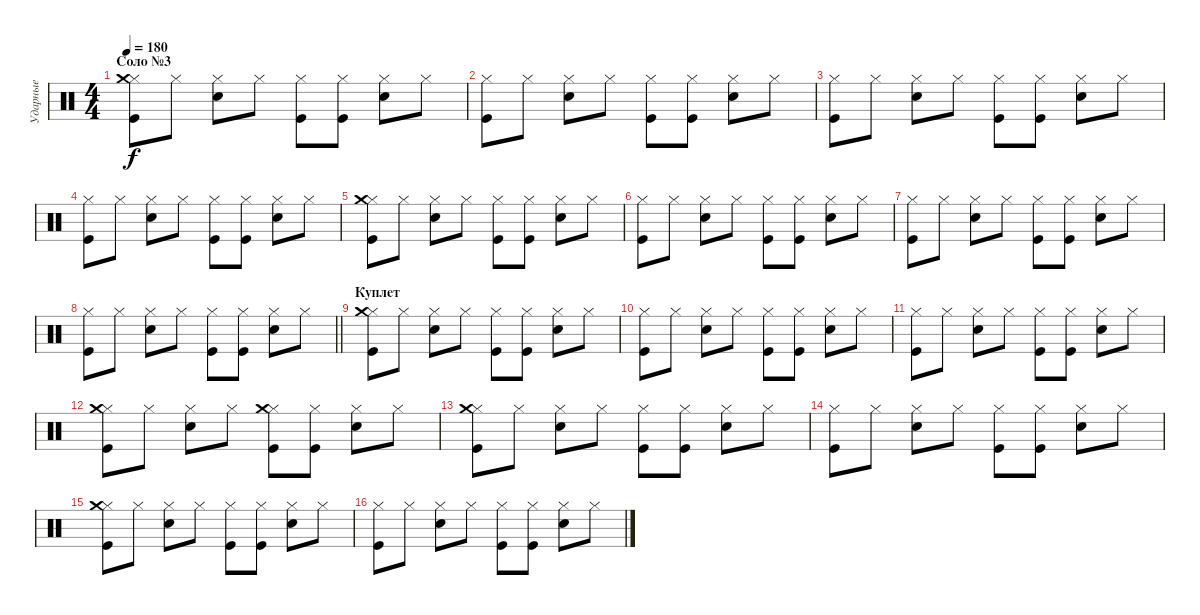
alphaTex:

\track ("Ударные" "Ударные") {instrument percussion}
\staff {score}
\articulation defaults
\ts (4 4)
\section ("" "Соло №3")
\tempo 180
\clef neutral
\ks c
("Hi-Hat (closed)" "Kick (hit)" "Crash medium (hit)").8{dy f} "Hi-Hat (closed)".8 ("Hi-Hat (closed)" "Electric Snare (hit)").8 "Hi-Hat (closed)".8 ("Hi-Hat (closed)" "Kick (hit)").8 ("Hi-Hat (closed)" "Kick (hit)").8 ("Hi-Hat (closed)" "Electric Snare (hit)").8 "Hi-Hat (closed)".8 |
("Hi-Hat (closed)" "Kick (hit)").8 "Hi-Hat (closed)".8 ("Hi-Hat (closed)" "Electric Snare (hit)").8 "Hi-Hat (closed)".8 ("Hi-Hat (closed)" "Kick (hit)").8 ("Hi-Hat (closed)" "Kick (hit)").8 ("Hi-Hat (closed)" "Electric Snare (hit)").8 "Hi-Hat (closed)".8 |
("Hi-Hat (closed)" "Kick (hit)").8 "Hi-Hat (closed)".8 ("Hi-Hat (closed)" "Electric Snare (hit)").8 "Hi-Hat (closed)".8 ("Hi-Hat (closed)" "Kick (hit)").8 ("Hi-Hat (closed)" "Kick (hit)").8 ("Hi-Hat (closed)" "Electric Snare (hit)").8 "Hi-Hat (closed)".8 |
("Hi-Hat (closed)" "Kick (hit)").8 "Hi-Hat (closed)".8 ("Hi-Hat (closed)" "Electric Snare (hit)").8 "Hi-Hat (closed)".8 ("Hi-Hat (closed)" "Kick (hit)").8 ("Hi-Hat (closed)" "Kick (hit)").8 ("Hi-Hat (closed)" "Electric Snare (hit)").8 "Hi-Hat (closed)".8 |
("Hi-Hat (closed)" "Kick (hit)" "Crash medium (hit)").8 "Hi-Hat (closed)".8 ("Hi-Hat (closed)" "Electric Snare (hit)").8 "Hi-Hat (closed)".8 ("Hi-Hat (closed)" "Kick (hit)").8 ("Hi-Hat (closed)" "Kick (hit)").8 ("Hi-Hat (closed)" "Electric Snare (hit)").8 "Hi-Hat (closed)".8 |
("Hi-Hat (closed)" "Kick (hit)").8 "Hi-Hat (closed)".8 ("Hi-Hat (closed)" "Electric Snare (hit)").8 "Hi-Hat (closed)".8 ("Hi-Hat (closed)" "Kick (hit)").8 ("Hi-Hat (closed)" "Kick (hit)").8 ("Hi-Hat (closed)" "Electric Snare (hit)").8 "Hi-Hat (closed)".8 |
("Hi-Hat (closed)" "Kick (hit)").8 "Hi-Hat (closed)".8 ("Hi-Hat (closed)" "Electric Snare (hit)").8 "Hi-Hat (closed)".8 ("Hi-Hat (closed)" "Kick (hit)").8 ("Hi-Hat (closed)" "Kick (hit)").8 ("Hi-Hat (closed)" "Electric Snare (hit)").8 "Hi-Hat (closed)".8 |
\barLineRight lightlight
("Hi-Hat (closed)" "Kick (hit)").8 "Hi-Hat (closed)".8 ("Hi-Hat (closed)" "Electric Snare (hit)").8 "Hi-Hat (closed)".8 ("Hi-Hat (closed)" "Kick (hit)").8 ("Hi-Hat (closed)" "Kick (hit)").8 ("Hi-Hat (closed)" "Electric Snare (hit)").8 "Hi-Hat (closed)".8 |
\section ("" "Куплет")
("Hi-Hat (closed)" "Kick (hit)" "Crash medium (hit)").8 "Hi-Hat (closed)".8 ("Hi-Hat (closed)" "Electric Snare (hit)").8 "Hi-Hat (closed)".8 ("Hi-Hat (closed)" "Kick (hit)").8 ("Hi-Hat (closed)" "Kick (hit)").8 ("Hi-Hat (closed)" "Electric Snare (hit)").8 "Hi-Hat (closed)".8 |
("Hi-Hat (closed)" "Kick (hit)").8 "Hi-Hat (closed)".8 ("Hi-Hat (closed)" "Electric Snare (hit)").8 "Hi-Hat (closed)".8 ("Hi-Hat (closed)" "Kick (hit)").8 ("Hi-Hat (closed)" "Kick (hit)").8 ("Hi-Hat (closed)" "Electric Snare (hit)").8 "Hi-Hat (closed)".8 |
("Hi-Hat (closed)" "Kick (hit)").8 "Hi-Hat (closed)".8 ("Hi-Hat (closed)" "Electric Snare (hit)").8 "Hi-Hat (closed)".8 ("Hi-Hat (closed)" "Kick (hit)").8 ("Hi-Hat (closed)" "Kick (hit)").8 ("Hi-Hat (closed)" "Electric Snare (hit)").8 "Hi-Hat (closed)".8 |
("Hi-Hat (closed)" "Kick (hit)" "Crash medium (hit)").8 "Hi-Hat (closed)".8 ("Hi-Hat (closed)" "Electric Snare (hit)").8 "Hi-Hat (closed)".8 ("Hi-Hat (closed)" "Kick (hit)" "Crash medium (hit)").8 ("Hi-Hat (closed)" "Kick (hit)").8 ("Hi-Hat (closed)" "Electric Snare (hit)").8 "Hi-Hat (closed)".8 |
("Hi-Hat (closed)" "Kick (hit)" "Crash medium (hit)").8 "Hi-Hat (closed)".8 ("Hi-Hat (closed)" "Electric Snare (hit)").8 "Hi-Hat (closed)".8 ("Hi-Hat (closed)" "Kick (hit)").8 ("Hi-Hat (closed)" "Kick (hit)").8 ("Hi-Hat (closed)" "Electric Snare (hit)").8 "Hi-Hat (closed)".8 |
("Hi-Hat (closed)" "Kick (hit)").8 "Hi-Hat (closed)".8 ("Hi-Hat (closed)" "Electric Snare (hit)").8 "Hi-Hat (closed)".8 ("Hi-Hat (closed)" "Kick (hit)").8 ("Hi-Hat (closed)" "Kick (hit)").8 ("Hi-Hat (closed)" "Electric Snare (hit)").8 "Hi-Hat (closed)".8 |
("Hi-Hat (closed)" "Kick (hit)" "Crash medium (hit)").8 "Hi-Hat (closed)".8 ("Hi-Hat (closed)" "Electric Snare (hit)").8 "Hi-Hat (closed)".8 ("Hi-Hat (closed)" "Kick (hit)").8 ("Hi-Hat (closed)" "Kick (hit)").8 ("Hi-Hat (closed)" "Electric Snare (hit)").8 "Hi-Hat (closed)".8 |
("Hi-Hat (closed)" "Kick (hit)").8 "Hi-Hat (closed)".8 ("Hi-Hat (closed)" "Electric Snare (hit)").8 "Hi-Hat (closed)".8 ("Hi-Hat (closed)" "Kick (hit)").8 ("Hi-Hat (closed)" "Kick (hit)").8 ("Hi-Hat (closed)" "Electric Snare (hit)").8 "Hi-Hat (closed)".8
